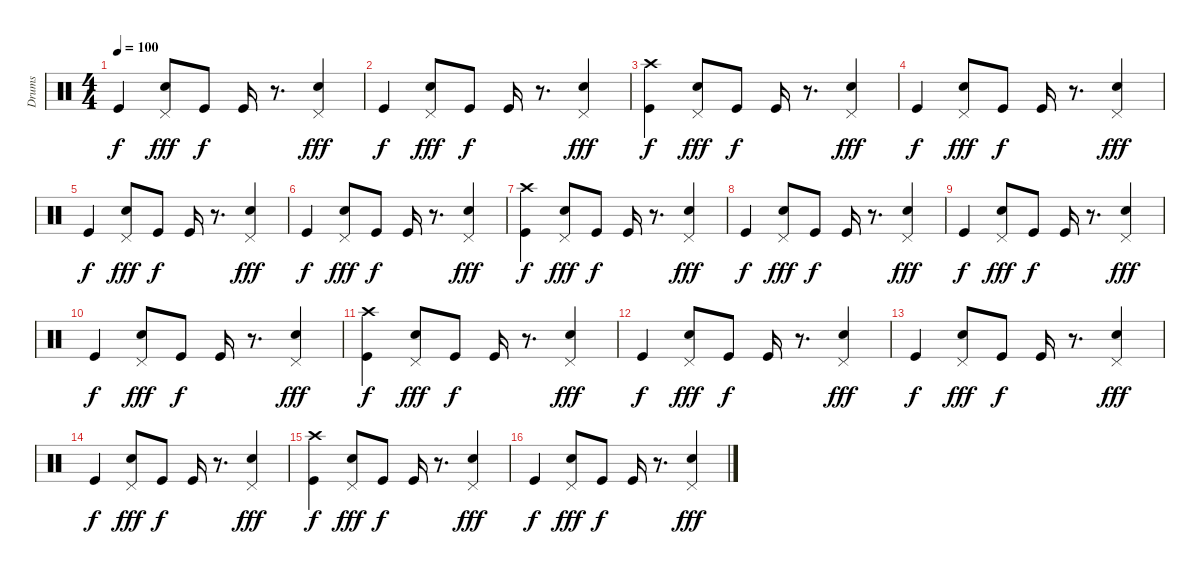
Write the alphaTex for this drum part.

\track ("Drums" "Drums") {instrument percussion}
\staff {score}
\articulation defaults
\ts (4 4)
\tempo 100
\clef neutral
\ks c "Kick (hit)".4{dy f}
("Pedal Hi-Hat (hit)" "Electric Snare (hit)").8{dy fff} "Kick (hit)".8{dy f} "Kick (hit)".16 r.8{d} ("Pedal Hi-Hat (hit)" "Electric Snare (hit)").4{dy fff} |
"Kick (hit)".4{dy f} ("Pedal Hi-Hat (hit)" "Electric Snare (hit)").8{dy fff} "Kick (hit)".8{dy f} "Kick (hit)".16 r.8{d} ("Pedal Hi-Hat (hit)" "Electric Snare (hit)").4{dy fff} |
("Crash high (hit)" "Kick (hit)").4{dy f} ("Pedal Hi-Hat (hit)" "Electric Snare (hit)").8{dy fff} "Kick (hit)".8{dy f} "Kick (hit)".16 r.8{d} ("Pedal Hi-Hat (hit)" "Electric Snare (hit)").4{dy fff} |
"Kick (hit)".4{dy f} ("Pedal Hi-Hat (hit)" "Electric Snare (hit)").8{dy fff} "Kick (hit)".8{dy f} "Kick (hit)".16 r.8{d} ("Pedal Hi-Hat (hit)" "Electric Snare (hit)").4{dy fff} |
"Kick (hit)".4{dy f} ("Pedal Hi-Hat (hit)" "Electric Snare (hit)").8{dy fff} "Kick (hit)".8{dy f} "Kick (hit)".16 r.8{d} ("Pedal Hi-Hat (hit)" "Electric Snare (hit)").4{dy fff} |
"Kick (hit)".4{dy f} ("Pedal Hi-Hat (hit)" "Electric Snare (hit)").8{dy fff} "Kick (hit)".8{dy f} "Kick (hit)".16 r.8{d} ("Pedal Hi-Hat (hit)" "Electric Snare (hit)").4{dy fff} |
("Crash high (hit)" "Kick (hit)").4{dy f} ("Pedal Hi-Hat (hit)" "Electric Snare (hit)").8{dy fff} "Kick (hit)".8{dy f} "Kick (hit)".16 r.8{d} ("Pedal Hi-Hat (hit)" "Electric Snare (hit)").4{dy fff} |
"Kick (hit)".4{dy f} ("Pedal Hi-Hat (hit)" "Electric Snare (hit)").8{dy fff} "Kick (hit)".8{dy f} "Kick (hit)".16 r.8{d} ("Pedal Hi-Hat (hit)" "Electric Snare (hit)").4{dy fff} |
"Kick (hit)".4{dy f} ("Pedal Hi-Hat (hit)" "Electric Snare (hit)").8{dy fff} "Kick (hit)".8{dy f} "Kick (hit)".16 r.8{d} ("Pedal Hi-Hat (hit)" "Electric Snare (hit)").4{dy fff} |
"Kick (hit)".4{dy f} ("Pedal Hi-Hat (hit)" "Electric Snare (hit)").8{dy fff} "Kick (hit)".8{dy f} "Kick (hit)".16 r.8{d} ("Pedal Hi-Hat (hit)" "Electric Snare (hit)").4{dy fff} |
("Crash high (hit)" "Kick (hit)").4{dy f} ("Pedal Hi-Hat (hit)" "Electric Snare (hit)").8{dy fff} "Kick (hit)".8{dy f} "Kick (hit)".16 r.8{d} ("Pedal Hi-Hat (hit)" "Electric Snare (hit)").4{dy fff} |
"Kick (hit)".4{dy f} ("Pedal Hi-Hat (hit)" "Electric Snare (hit)").8{dy fff} "Kick (hit)".8{dy f} "Kick (hit)".16 r.8{d} ("Pedal Hi-Hat (hit)" "Electric Snare (hit)").4{dy fff} |
"Kick (hit)".4{dy f} ("Pedal Hi-Hat (hit)" "Electric Snare (hit)").8{dy fff} "Kick (hit)".8{dy f} "Kick (hit)".16 r.8{d} ("Pedal Hi-Hat (hit)" "Electric Snare (hit)").4{dy fff} |
"Kick (hit)".4{dy f} ("Pedal Hi-Hat (hit)" "Electric Snare (hit)").8{dy fff} "Kick (hit)".8{dy f} "Kick (hit)".16 r.8{d} ("Pedal Hi-Hat (hit)" "Electric Snare (hit)").4{dy fff} |
("Crash high (hit)" "Kick (hit)").4{dy f} ("Pedal Hi-Hat (hit)" "Electric Snare (hit)").8{dy fff} "Kick (hit)".8{dy f} "Kick (hit)".16 r.8{d} ("Pedal Hi-Hat (hit)" "Electric Snare (hit)").4{dy fff} |
"Kick (hit)".4{dy f} ("Pedal Hi-Hat (hit)" "Electric Snare (hit)").8{dy fff} "Kick (hit)".8{dy f} "Kick (hit)".16 r.8{d} ("Pedal Hi-Hat (hit)" "Electric Snare (hit)").4{dy fff}
